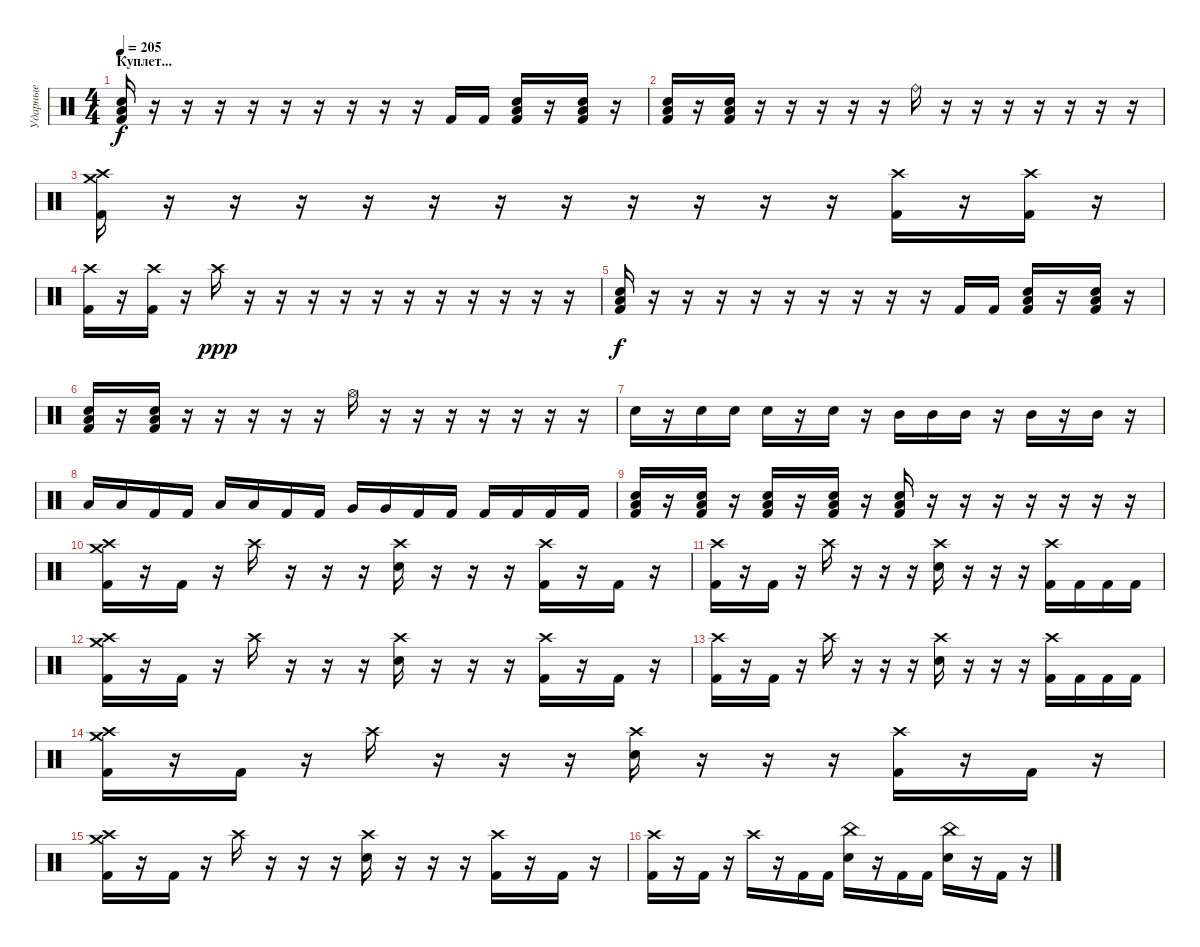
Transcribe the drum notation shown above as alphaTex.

\track ("Ударные" "Ударные") {instrument percussion}
\staff {score}
\articulation defaults
\ts (4 4)
\section ("" "Куплет...")
\tempo 205
\clef neutral
\ks c
("Low Floor Tom (hit)" "Electric Snare (hit)" "Kick (hit) 2").16{dy f} r.16 r.16 r.16 r.16 r.16 r.16 r.16 r.16 r.16 "Kick (hit) 2".16 "Kick (hit) 2".16 ("Low Floor Tom (hit)" "Electric Snare (hit)" "Kick (hit) 2").16 r.16 ("Low Floor Tom (hit)" "Electric Snare (hit)" "Kick (hit) 2").16 r.16 |
("Low Floor Tom (hit)" "Electric Snare (hit)" "Kick (hit) 2").16 r.16 ("Low Floor Tom (hit)" "Electric Snare (hit)" "Kick (hit) 2").16 r.16 r.16 r.16 r.16 r.16 "Ride (bell)".16 r.16 r.16 r.16 r.16 r.16 r.16 r.16 |
("Crash high (hit)" "Crash medium (hit)" "Kick (hit) 2").16 r.16 r.16 r.16 r.16 r.16 r.16 r.16 r.16 r.16 r.16 r.16 ("Crash high (hit)" "Kick (hit) 2").16 r.16 ("Crash high (hit)" "Kick (hit) 2").16 r.16 |
("Crash high (hit)" "Kick (hit) 2").16 r.16 ("Crash high (hit)" "Kick (hit) 2").16 r.16 "Crash high (hit)".16{dy ppp} r.16 r.16 r.16 r.16 r.16 r.16 r.16 r.16 r.16 r.16 r.16 |
("Low Floor Tom (hit)" "Electric Snare (hit)" "Kick (hit) 2").16{dy f} r.16 r.16 r.16 r.16 r.16 r.16 r.16 r.16 r.16 "Kick (hit) 2".16 "Kick (hit) 2".16 ("Low Floor Tom (hit)" "Electric Snare (hit)" "Kick (hit) 2").16 r.16 ("Low Floor Tom (hit)" "Electric Snare (hit)" "Kick (hit) 2").16 r.16 |
("Low Floor Tom (hit)" "Electric Snare (hit)" "Kick (hit) 2").16 r.16 ("Low Floor Tom (hit)" "Electric Snare (hit)" "Kick (hit) 2").16 r.16 r.16 r.16 r.16 r.16 "Hi-Hat (open)".16 r.16 r.16 r.16 r.16 r.16 r.16 r.16 |
"Electric Snare (hit)".16 r.16 "Electric Snare (hit)".16 "Electric Snare (hit)".16 "Electric Snare (hit)".16 r.16 "Electric Snare (hit)".16 r.16 "Mid Tom (hit)".16 "Mid Tom (hit)".16 "Mid Tom (hit)".16 r.16 "Mid Tom (hit)".16 r.16 "Mid Tom (hit)".16 r.16 |
"Low Tom (hit)".16 "Low Tom (hit)".16 "Kick (hit) 2".16 "Kick (hit) 2".16 "Low Tom (hit)".16 "Low Tom (hit)".16 "Kick (hit) 2".16 "Kick (hit) 2".16 "Very Low Tom (hit)".16 "Very Low Tom (hit)".16 "Kick (hit) 2".16 "Kick (hit) 2".16 "Kick (hit) 2".16 "Kick (hit) 2".16 "Kick (hit) 2".16 "Kick (hit) 2".16 |
("Low Floor Tom (hit)" "Electric Snare (hit)" "Kick (hit) 2").16 r.16 ("Low Floor Tom (hit)" "Electric Snare (hit)" "Kick (hit) 2").16 r.16 ("Low Floor Tom (hit)" "Electric Snare (hit)" "Kick (hit) 2").16 r.16 ("Low Floor Tom (hit)" "Electric Snare (hit)" "Kick (hit) 2").16 r.16 ("Low Floor Tom (hit)" "Electric Snare (hit)" "Kick (hit) 2").16 r.16 r.16 r.16 r.16 r.16 r.16 r.16 |
("Crash high (hit)" "Crash medium (hit)" "Kick (hit) 2").16 r.16 "Kick (hit) 2".16 r.16 "Crash high (hit)".16 r.16 r.16 r.16 ("Crash high (hit)" "Electric Snare (hit)").16 r.16 r.16 r.16 ("Crash high (hit)" "Kick (hit) 2").16 r.16 "Kick (hit) 2".16 r.16 |
("Crash high (hit)" "Kick (hit) 2").16 r.16 "Kick (hit) 2".16 r.16 "Crash high (hit)".16 r.16 r.16 r.16 ("Crash high (hit)" "Electric Snare (hit)").16 r.16 r.16 r.16 ("Crash high (hit)" "Kick (hit) 2").16 "Kick (hit) 2".16 "Kick (hit) 2".16 "Kick (hit) 2".16 |
("Crash high (hit)" "Crash medium (hit)" "Kick (hit) 2").16 r.16 "Kick (hit) 2".16 r.16 "Crash high (hit)".16 r.16 r.16 r.16 ("Crash high (hit)" "Electric Snare (hit)").16 r.16 r.16 r.16 ("Crash high (hit)" "Kick (hit) 2").16 r.16 "Kick (hit) 2".16 r.16 |
("Crash high (hit)" "Kick (hit) 2").16 r.16 "Kick (hit) 2".16 r.16 "Crash high (hit)".16 r.16 r.16 r.16 ("Crash high (hit)" "Electric Snare (hit)").16 r.16 r.16 r.16 ("Crash high (hit)" "Kick (hit) 2").16 "Kick (hit) 2".16 "Kick (hit) 2".16 "Kick (hit) 2".16 |
("Crash high (hit)" "Crash medium (hit)" "Kick (hit) 2").16 r.16 "Kick (hit) 2".16 r.16 "Crash high (hit)".16 r.16 r.16 r.16 ("Crash high (hit)" "Electric Snare (hit)").16 r.16 r.16 r.16 ("Crash high (hit)" "Kick (hit) 2").16 r.16 "Kick (hit) 2".16 r.16 |
("Crash high (hit)" "Crash medium (hit)" "Kick (hit) 2").16 r.16 "Kick (hit) 2".16 r.16 "Crash high (hit)".16 r.16 r.16 r.16 ("Crash high (hit)" "Electric Snare (hit)").16 r.16 r.16 r.16 ("Crash high (hit)" "Kick (hit) 2").16 r.16 "Kick (hit) 2".16 r.16 |
("Crash high (hit)" "Kick (hit) 2").16 r.16 "Kick (hit) 2".16 r.16 "Crash high (hit)".16 r.16 "Kick (hit) 2".16 "Kick (hit) 2".16 ("China (hit)" "Electric Snare (hit)").16 r.16 "Kick (hit) 2".16 "Kick (hit) 2".16 ("China (hit)" "Electric Snare (hit)").16 r.16 "Kick (hit) 2".16 r.16
